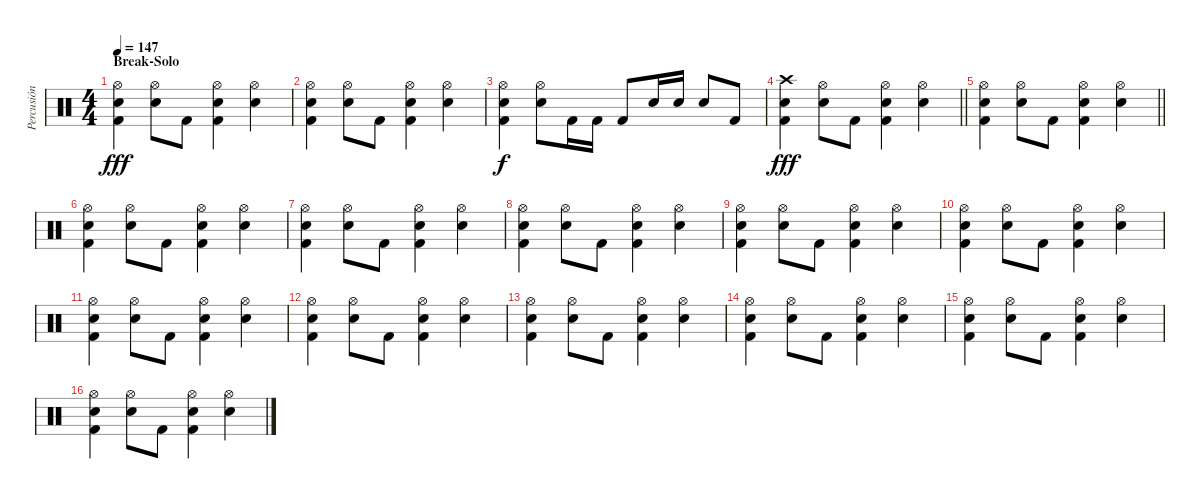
\track ("Percusión" "Percusión") {instrument percussion}
\staff {score}
\articulation defaults
\ts (4 4)
\section ("" "Break-Solo")
\tempo 147
\clef neutral
\ks c
("Hi-Hat (open)" "Electric Snare (hit)" "Kick (hit) 2").4{dy fff} ("Hi-Hat (open)" "Electric Snare (hit)").8 "Kick (hit) 2".8 ("Hi-Hat (open)" "Electric Snare (hit)" "Kick (hit) 2").4 ("Hi-Hat (open)" "Electric Snare (hit)").4 |
("Hi-Hat (open)" "Electric Snare (hit)" "Kick (hit) 2").4 ("Hi-Hat (open)" "Electric Snare (hit)").8 "Kick (hit) 2".8 ("Hi-Hat (open)" "Electric Snare (hit)" "Kick (hit) 2").4 ("Hi-Hat (open)" "Electric Snare (hit)").4 |
("Hi-Hat (open)" "Electric Snare (hit)" "Kick (hit) 2").4{dy f} ("Hi-Hat (open)" "Electric Snare (hit)").8 "Kick (hit) 2".16 "Kick (hit) 2".16 "Kick (hit) 2".8 "Electric Snare (hit)".16 "Electric Snare (hit)".16 "Electric Snare (hit)".8 "Kick (hit) 2".8 |
\barLineRight lightlight
("Crash high (hit)" "Electric Snare (hit)" "Kick (hit) 2").4{dy fff} ("Hi-Hat (open)" "Electric Snare (hit)").8 "Kick (hit) 2".8 ("Hi-Hat (open)" "Electric Snare (hit)" "Kick (hit) 2").4 ("Hi-Hat (open)" "Electric Snare (hit)").4 |
\section ("" "")
\barLineRight lightlight
("Hi-Hat (open)" "Electric Snare (hit)" "Kick (hit) 2").4 ("Hi-Hat (open)" "Electric Snare (hit)").8 "Kick (hit) 2".8 ("Hi-Hat (open)" "Electric Snare (hit)" "Kick (hit) 2").4 ("Hi-Hat (open)" "Electric Snare (hit)").4 |
\section ("" "")
("Hi-Hat (open)" "Electric Snare (hit)" "Kick (hit) 2").4 ("Hi-Hat (open)" "Electric Snare (hit)").8 "Kick (hit) 2".8 ("Hi-Hat (open)" "Electric Snare (hit)" "Kick (hit) 2").4 ("Hi-Hat (open)" "Electric Snare (hit)").4 |
("Hi-Hat (open)" "Electric Snare (hit)" "Kick (hit) 2").4 ("Hi-Hat (open)" "Electric Snare (hit)").8 "Kick (hit) 2".8 ("Hi-Hat (open)" "Electric Snare (hit)" "Kick (hit) 2").4 ("Hi-Hat (open)" "Electric Snare (hit)").4 |
("Hi-Hat (open)" "Electric Snare (hit)" "Kick (hit) 2").4 ("Hi-Hat (open)" "Electric Snare (hit)").8 "Kick (hit) 2".8 ("Hi-Hat (open)" "Electric Snare (hit)" "Kick (hit) 2").4 ("Hi-Hat (open)" "Electric Snare (hit)").4 |
("Hi-Hat (open)" "Electric Snare (hit)" "Kick (hit) 2").4 ("Hi-Hat (open)" "Electric Snare (hit)").8 "Kick (hit) 2".8 ("Hi-Hat (open)" "Electric Snare (hit)" "Kick (hit) 2").4 ("Hi-Hat (open)" "Electric Snare (hit)").4 |
("Hi-Hat (open)" "Electric Snare (hit)" "Kick (hit) 2").4 ("Hi-Hat (open)" "Electric Snare (hit)").8 "Kick (hit) 2".8 ("Hi-Hat (open)" "Electric Snare (hit)" "Kick (hit) 2").4 ("Hi-Hat (open)" "Electric Snare (hit)").4 |
("Hi-Hat (open)" "Electric Snare (hit)" "Kick (hit) 2").4 ("Hi-Hat (open)" "Electric Snare (hit)").8 "Kick (hit) 2".8 ("Hi-Hat (open)" "Electric Snare (hit)" "Kick (hit) 2").4 ("Hi-Hat (open)" "Electric Snare (hit)").4 |
("Hi-Hat (open)" "Electric Snare (hit)" "Kick (hit) 2").4 ("Hi-Hat (open)" "Electric Snare (hit)").8 "Kick (hit) 2".8 ("Hi-Hat (open)" "Electric Snare (hit)" "Kick (hit) 2").4 ("Hi-Hat (open)" "Electric Snare (hit)").4 |
("Hi-Hat (open)" "Electric Snare (hit)" "Kick (hit) 2").4 ("Hi-Hat (open)" "Electric Snare (hit)").8 "Kick (hit) 2".8 ("Hi-Hat (open)" "Electric Snare (hit)" "Kick (hit) 2").4 ("Hi-Hat (open)" "Electric Snare (hit)").4 |
("Hi-Hat (open)" "Electric Snare (hit)" "Kick (hit) 2").4 ("Hi-Hat (open)" "Electric Snare (hit)").8 "Kick (hit) 2".8 ("Hi-Hat (open)" "Electric Snare (hit)" "Kick (hit) 2").4 ("Hi-Hat (open)" "Electric Snare (hit)").4 |
("Hi-Hat (open)" "Electric Snare (hit)" "Kick (hit) 2").4 ("Hi-Hat (open)" "Electric Snare (hit)").8 "Kick (hit) 2".8 ("Hi-Hat (open)" "Electric Snare (hit)" "Kick (hit) 2").4 ("Hi-Hat (open)" "Electric Snare (hit)").4 |
("Hi-Hat (open)" "Electric Snare (hit)" "Kick (hit) 2").4 ("Hi-Hat (open)" "Electric Snare (hit)").8 "Kick (hit) 2".8 ("Hi-Hat (open)" "Electric Snare (hit)" "Kick (hit) 2").4 ("Hi-Hat (open)" "Electric Snare (hit)").4
